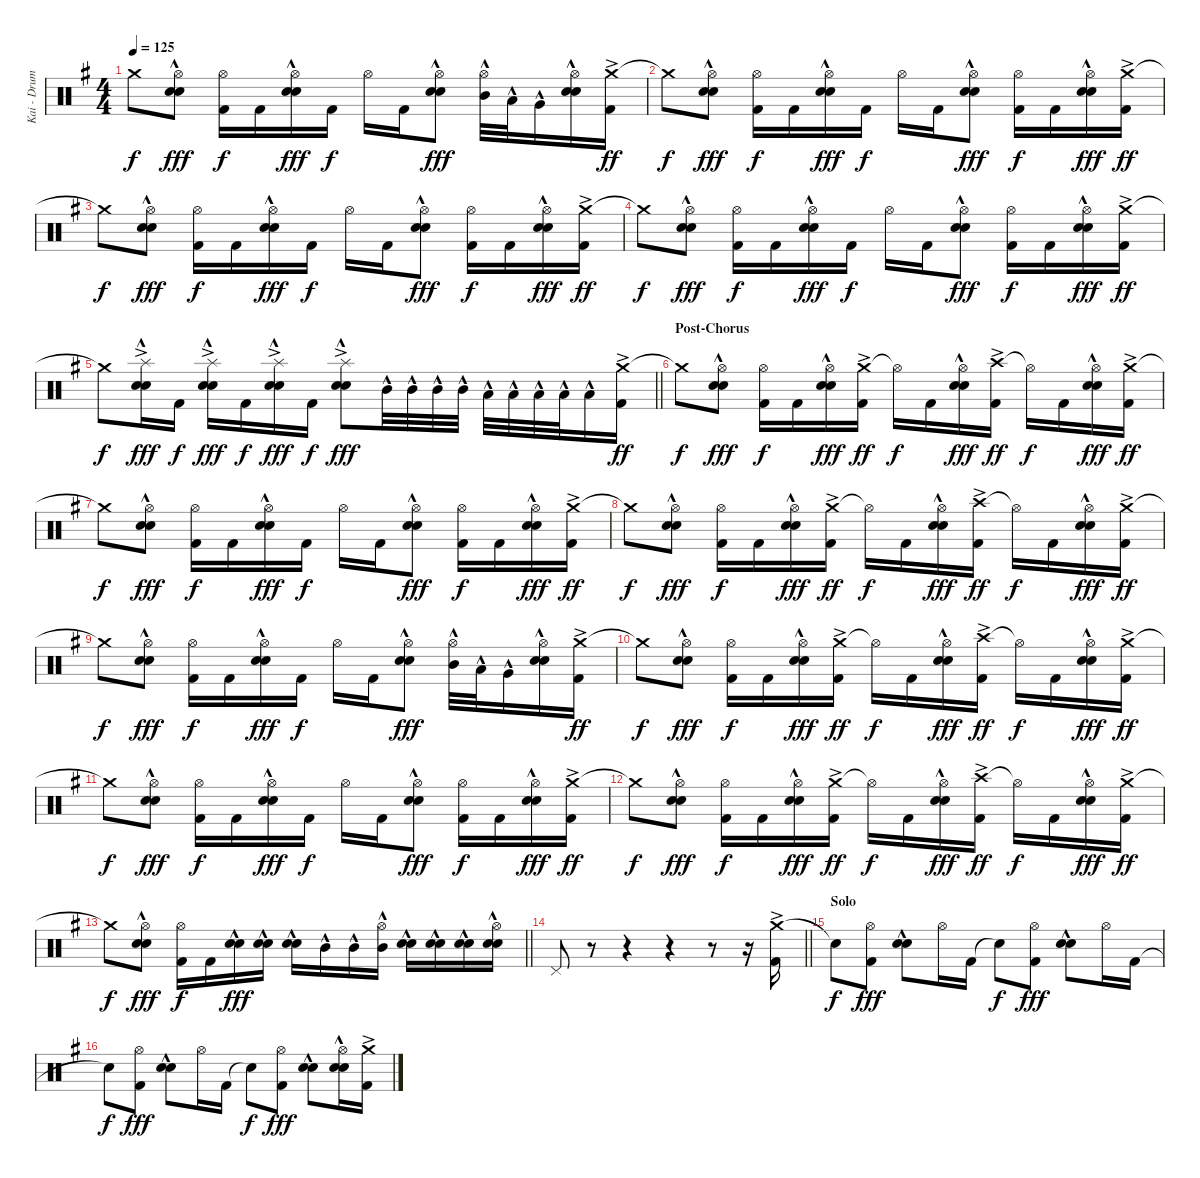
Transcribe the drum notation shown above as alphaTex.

\track ("Kai - Drums" "Kai - Drum") {instrument percussion}
\staff {score}
\articulation defaults
\ts (4 4)
\tempo 125
\clef neutral
\ks eminor "Crash medium (hit)"{t}.8{dy f}
("Hi-Hat (open)" "Electric Snare (hit)"{hac} "Snare (hit) 2"{hac}).8{dy fff} ("Hi-Hat (open)" "Kick (hit) 2").16{dy f} "Kick (hit) 2".16 ("Hi-Hat (open)" "Electric Snare (hit)"{hac} "Snare (hit) 2"{hac}).16{dy fff} "Kick (hit) 2".16{dy f} "Hi-Hat (open)".16 "Kick (hit) 2".16 ("Hi-Hat (open)" "Electric Snare (hit)"{hac} "Snare (hit) 2"{hac}).8{dy fff} ("Hi-Hat (open)" "Mid Tom (hit)"{hac}).32 "Low Tom (hit)"{hac}.32 "Very Low Tom (hit)"{hac}.16 ("Hi-Hat (open)" "Electric Snare (hit)"{hac} "Snare (hit) 2"{hac}).16 ("Crash medium (hit)"{ac} "Kick (hit) 2").16{dy ff} |
"Crash medium (hit)"{t}.8{dy f} ("Hi-Hat (open)" "Electric Snare (hit)"{hac} "Snare (hit) 2"{hac}).8{dy fff} ("Hi-Hat (open)" "Kick (hit) 2").16{dy f} "Kick (hit) 2".16 ("Hi-Hat (open)" "Electric Snare (hit)"{hac} "Snare (hit) 2"{hac}).16{dy fff} "Kick (hit) 2".16{dy f} "Hi-Hat (open)".16 "Kick (hit) 2".16 ("Hi-Hat (open)" "Electric Snare (hit)"{hac} "Snare (hit) 2"{hac}).8{dy fff} ("Hi-Hat (open)" "Kick (hit) 2").16{dy f} "Kick (hit) 2".16 ("Hi-Hat (open)" "Electric Snare (hit)"{hac} "Snare (hit) 2"{hac}).16{dy fff} ("Crash medium (hit)"{ac} "Kick (hit) 2").16{dy ff} |
"Crash medium (hit)"{t}.8{dy f} ("Hi-Hat (open)" "Electric Snare (hit)"{hac} "Snare (hit) 2"{hac}).8{dy fff} ("Hi-Hat (open)" "Kick (hit) 2").16{dy f} "Kick (hit) 2".16 ("Hi-Hat (open)" "Electric Snare (hit)"{hac} "Snare (hit) 2"{hac}).16{dy fff} "Kick (hit) 2".16{dy f} "Hi-Hat (open)".16 "Kick (hit) 2".16 ("Hi-Hat (open)" "Electric Snare (hit)"{hac} "Snare (hit) 2"{hac}).8{dy fff} ("Hi-Hat (open)" "Kick (hit) 2").16{dy f} "Kick (hit) 2".16 ("Hi-Hat (open)" "Electric Snare (hit)"{hac} "Snare (hit) 2"{hac}).16{dy fff} ("Crash medium (hit)"{ac} "Kick (hit) 2").16{dy ff} |
"Crash medium (hit)"{t}.8{dy f} ("Hi-Hat (open)" "Electric Snare (hit)"{hac} "Snare (hit) 2"{hac}).8{dy fff} ("Hi-Hat (open)" "Kick (hit) 2").16{dy f} "Kick (hit) 2".16 ("Hi-Hat (open)" "Electric Snare (hit)"{hac} "Snare (hit) 2"{hac}).16{dy fff} "Kick (hit) 2".16{dy f} "Hi-Hat (open)".16 "Kick (hit) 2".16 ("Hi-Hat (open)" "Electric Snare (hit)"{hac} "Snare (hit) 2"{hac}).8{dy fff} ("Hi-Hat (open)" "Kick (hit) 2").16{dy f} "Kick (hit) 2".16 ("Hi-Hat (open)" "Electric Snare (hit)"{hac} "Snare (hit) 2"{hac}).16{dy fff} ("Crash medium (hit)"{ac} "Kick (hit) 2").16{dy ff} |
\barLineRight lightlight "Crash medium (hit)"{t}.8{dy f}
("Splash (hit)"{ac} "Electric Snare (hit)"{hac} "Snare (hit) 2"{hac}).16{dy fff} "Kick (hit) 2".16{dy f} ("Splash (hit)"{ac} "Electric Snare (hit)"{hac} "Snare (hit) 2"{hac}).16{dy fff} "Kick (hit) 2".16{dy f} ("Splash (hit)"{ac} "Electric Snare (hit)"{hac} "Snare (hit) 2"{hac}).16{dy fff} "Kick (hit) 2".16{dy f} ("Splash (hit)"{ac} "Electric Snare (hit)"{hac} "Snare (hit) 2"{hac}).8{dy fff} "Mid Tom (hit)"{hac}.32 "Mid Tom (hit)"{hac}.32 "Mid Tom (hit)"{hac}.32 "Mid Tom (hit)"{hac}.32 "Low Tom (hit)"{hac}.32 "Low Tom (hit)"{hac}.32 "Low Tom (hit)"{hac}.32 "Low Tom (hit)"{hac}.32 "Low Tom (hit)"{hac}.16 ("Crash medium (hit)"{ac} "Kick (hit) 2").16{dy ff} |
\section ("" "Post-Chorus")
"Crash medium (hit)"{t}.8{dy f} ("Hi-Hat (open)" "Electric Snare (hit)"{hac} "Snare (hit) 2"{hac}).8{dy fff} ("Hi-Hat (open)" "Kick (hit) 2").16{dy f} "Kick (hit) 2".16 ("Hi-Hat (open)" "Electric Snare (hit)"{hac} "Snare (hit) 2"{hac}).16{dy fff} ("Crash medium (hit)"{ac} "Kick (hit) 2").16{dy ff} "Hi-Hat (open)"{t}.16{dy f} "Kick (hit) 2".16 ("Hi-Hat (open)" "Electric Snare (hit)"{hac} "Snare (hit) 2"{hac}).16{dy fff} ("Crash high (hit)"{ac} "Kick (hit) 2").16{dy ff} "Hi-Hat (open)"{t}.16{dy f} "Kick (hit) 2".16 ("Hi-Hat (open)" "Electric Snare (hit)"{hac} "Snare (hit) 2"{hac}).16{dy fff} ("Crash medium (hit)"{ac} "Kick (hit) 2").16{dy ff} |
"Crash medium (hit)"{t}.8{dy f} ("Hi-Hat (open)" "Electric Snare (hit)"{hac} "Snare (hit) 2"{hac}).8{dy fff} ("Hi-Hat (open)" "Kick (hit) 2").16{dy f} "Kick (hit) 2".16 ("Hi-Hat (open)" "Electric Snare (hit)"{hac} "Snare (hit) 2"{hac}).16{dy fff} "Kick (hit) 2".16{dy f} "Hi-Hat (open)".16 "Kick (hit) 2".16 ("Hi-Hat (open)" "Electric Snare (hit)"{hac} "Snare (hit) 2"{hac}).8{dy fff} ("Hi-Hat (open)" "Kick (hit) 2").16{dy f} "Kick (hit) 2".16 ("Hi-Hat (open)" "Electric Snare (hit)"{hac} "Snare (hit) 2"{hac}).16{dy fff} ("Crash medium (hit)"{ac} "Kick (hit) 2").16{dy ff} |
"Crash medium (hit)"{t}.8{dy f} ("Hi-Hat (open)" "Electric Snare (hit)"{hac} "Snare (hit) 2"{hac}).8{dy fff} ("Hi-Hat (open)" "Kick (hit) 2").16{dy f} "Kick (hit) 2".16 ("Hi-Hat (open)" "Electric Snare (hit)"{hac} "Snare (hit) 2"{hac}).16{dy fff} ("Crash medium (hit)"{ac} "Kick (hit) 2").16{dy ff} "Hi-Hat (open)"{t}.16{dy f} "Kick (hit) 2".16 ("Hi-Hat (open)" "Electric Snare (hit)"{hac} "Snare (hit) 2"{hac}).16{dy fff} ("Crash high (hit)"{ac} "Kick (hit) 2").16{dy ff} "Hi-Hat (open)"{t}.16{dy f} "Kick (hit) 2".16 ("Hi-Hat (open)" "Electric Snare (hit)"{hac} "Snare (hit) 2"{hac}).16{dy fff} ("Crash medium (hit)"{ac} "Kick (hit) 2").16{dy ff} |
"Crash medium (hit)"{t}.8{dy f} ("Hi-Hat (open)" "Electric Snare (hit)"{hac} "Snare (hit) 2"{hac}).8{dy fff} ("Hi-Hat (open)" "Kick (hit) 2").16{dy f} "Kick (hit) 2".16 ("Hi-Hat (open)" "Electric Snare (hit)"{hac} "Snare (hit) 2"{hac}).16{dy fff} "Kick (hit) 2".16{dy f} "Hi-Hat (open)".16 "Kick (hit) 2".16 ("Hi-Hat (open)" "Electric Snare (hit)"{hac} "Snare (hit) 2"{hac}).8{dy fff} ("Hi-Hat (open)" "Mid Tom (hit)"{hac}).32 "Low Tom (hit)"{hac}.32 "Very Low Tom (hit)"{hac}.16 ("Hi-Hat (open)" "Electric Snare (hit)"{hac} "Snare (hit) 2"{hac}).16 ("Crash medium (hit)"{ac} "Kick (hit) 2").16{dy ff} |
"Crash medium (hit)"{t}.8{dy f} ("Hi-Hat (open)" "Electric Snare (hit)"{hac} "Snare (hit) 2"{hac}).8{dy fff} ("Hi-Hat (open)" "Kick (hit) 2").16{dy f} "Kick (hit) 2".16 ("Hi-Hat (open)" "Electric Snare (hit)"{hac} "Snare (hit) 2"{hac}).16{dy fff} ("Crash medium (hit)"{ac} "Kick (hit) 2").16{dy ff} "Hi-Hat (open)"{t}.16{dy f} "Kick (hit) 2".16 ("Hi-Hat (open)" "Electric Snare (hit)"{hac} "Snare (hit) 2"{hac}).16{dy fff} ("Crash high (hit)"{ac} "Kick (hit) 2").16{dy ff} "Hi-Hat (open)"{t}.16{dy f} "Kick (hit) 2".16 ("Hi-Hat (open)" "Electric Snare (hit)"{hac} "Snare (hit) 2"{hac}).16{dy fff} ("Crash medium (hit)"{ac} "Kick (hit) 2").16{dy ff} |
"Crash medium (hit)"{t}.8{dy f} ("Hi-Hat (open)" "Electric Snare (hit)"{hac} "Snare (hit) 2"{hac}).8{dy fff} ("Hi-Hat (open)" "Kick (hit) 2").16{dy f} "Kick (hit) 2".16 ("Hi-Hat (open)" "Electric Snare (hit)"{hac} "Snare (hit) 2"{hac}).16{dy fff} "Kick (hit) 2".16{dy f} "Hi-Hat (open)".16 "Kick (hit) 2".16 ("Hi-Hat (open)" "Electric Snare (hit)"{hac} "Snare (hit) 2"{hac}).8{dy fff} ("Hi-Hat (open)" "Kick (hit) 2").16{dy f} "Kick (hit) 2".16 ("Hi-Hat (open)" "Electric Snare (hit)"{hac} "Snare (hit) 2"{hac}).16{dy fff} ("Crash medium (hit)"{ac} "Kick (hit) 2").16{dy ff} |
"Crash medium (hit)"{t}.8{dy f} ("Hi-Hat (open)" "Electric Snare (hit)"{hac} "Snare (hit) 2"{hac}).8{dy fff} ("Hi-Hat (open)" "Kick (hit) 2").16{dy f} "Kick (hit) 2".16 ("Hi-Hat (open)" "Electric Snare (hit)"{hac} "Snare (hit) 2"{hac}).16{dy fff} ("Crash medium (hit)"{ac} "Kick (hit) 2").16{dy ff} "Hi-Hat (open)"{t}.16{dy f} "Kick (hit) 2".16 ("Hi-Hat (open)" "Electric Snare (hit)"{hac} "Snare (hit) 2"{hac}).16{dy fff} ("Crash high (hit)"{ac} "Kick (hit) 2").16{dy ff} "Hi-Hat (open)"{t}.16{dy f} "Kick (hit) 2".16 ("Hi-Hat (open)" "Electric Snare (hit)"{hac} "Snare (hit) 2"{hac}).16{dy fff} ("Crash medium (hit)"{ac} "Kick (hit) 2").16{dy ff} |
\barLineRight lightlight "Crash medium (hit)"{t}.8{dy f}
("Hi-Hat (open)" "Electric Snare (hit)"{hac} "Snare (hit) 2"{hac}).8{dy fff} ("Hi-Hat (open)" "Kick (hit) 2").16{dy f} "Kick (hit) 2".16 ("Electric Snare (hit)"{hac} "Snare (hit) 2"{hac}).16{dy fff} ("Electric Snare (hit)"{hac} "Snare (hit) 2"{hac}).16 ("Electric Snare (hit)"{hac} "Snare (hit) 2"{hac}).16 "Mid Tom (hit)"{hac}.16 "Mid Tom (hit)"{hac}.16 ("Hi-Hat (open)" "Mid Tom (hit)"{hac}).16 ("Electric Snare (hit)"{hac} "Snare (hit) 2"{hac}).16 ("Electric Snare (hit)"{hac} "Snare (hit) 2"{hac}).16 ("Electric Snare (hit)"{hac} "Snare (hit) 2"{hac}).16 ("Hi-Hat (open)" "Electric Snare (hit)"{hac} "Snare (hit) 2"{hac}).16 |
\barLineRight lightlight "Pedal Hi-Hat (hit)".8
r.8 r.4 r.4 r.8 r.16 ("Crash medium (hit)"{ac} "Kick (hit) 2").16 |
\section ("" "Solo")
"Snare (hit)"{t}.8{dy f} ("Hi-Hat (open)" "Kick (hit) 2").8{dy fff} ("Electric Snare (hit)"{hac} "Snare (hit) 2"{hac}).8 "Hi-Hat (open)".16 "Kick (hit) 2".16 "Snare (hit)"{t}.8{dy f} ("Hi-Hat (open)" "Kick (hit) 2").8{dy fff} ("Electric Snare (hit)"{hac} "Snare (hit) 2"{hac}).8 "Hi-Hat (open)".16 "Kick (hit) 2".16 |
"Snare (hit)"{t}.8{dy f} ("Hi-Hat (open)" "Kick (hit) 2").8{dy fff} ("Electric Snare (hit)"{hac} "Snare (hit) 2"{hac}).8 "Hi-Hat (open)".16 "Kick (hit) 2".16 "Snare (hit)"{t}.8{dy f} ("Hi-Hat (open)" "Kick (hit) 2").8{dy fff} ("Electric Snare (hit)"{hac} "Snare (hit) 2"{hac}).8 ("Hi-Hat (open)" "Electric Snare (hit)"{hac} "Snare (hit) 2"{hac}).16 ("Crash medium (hit)"{ac} "Kick (hit) 2").16
